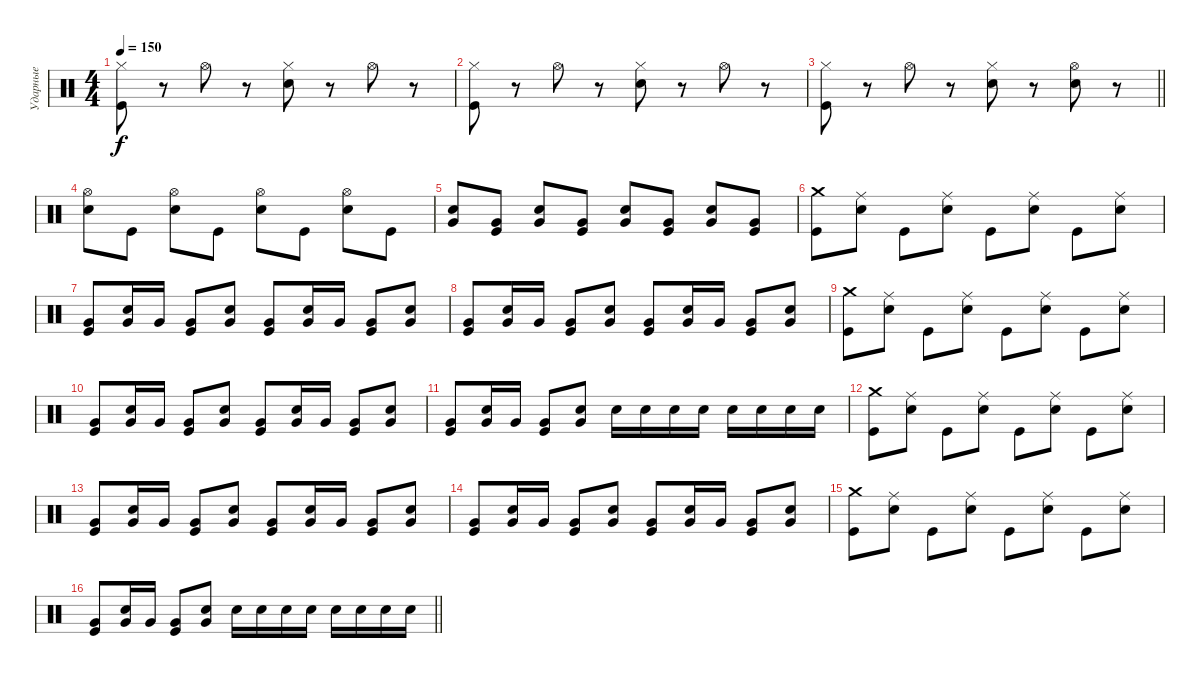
\track ("Ударные" "Ударные") {instrument percussion}
\staff {score}
\articulation defaults
\ts (4 4)
\tempo 150
\clef neutral
\ks c
("Hi-Hat (closed)" "Kick (hit)").8{dy f} r.8 "Hi-Hat (open)".8 r.8 ("Hi-Hat (closed)" "Electric Snare (hit)").8 r.8 "Hi-Hat (open)".8 r.8 |
("Hi-Hat (closed)" "Kick (hit)").8 r.8 "Hi-Hat (open)".8 r.8 ("Hi-Hat (closed)" "Electric Snare (hit)").8 r.8 "Hi-Hat (open)".8 r.8 |
\barLineRight lightlight
("Hi-Hat (closed)" "Kick (hit)").8 r.8 "Hi-Hat (open)".8 r.8 ("Hi-Hat (closed)" "Electric Snare (hit)").8 r.8 ("Hi-Hat (open)" "Electric Snare (hit)").8 r.8 |
\section ("" " ")
("Hi-Hat (open)" "Electric Snare (hit)").8 "Kick (hit)".8 ("Hi-Hat (open)" "Electric Snare (hit)").8 "Kick (hit)".8 ("Hi-Hat (open)" "Electric Snare (hit)").8 "Kick (hit)".8 ("Hi-Hat (open)" "Electric Snare (hit)").8 "Kick (hit)".8 |
("Very Low Tom (hit)" "Electric Snare (hit)").8 ("Very Low Tom (hit)" "Kick (hit)").8 ("Very Low Tom (hit)" "Electric Snare (hit)").8 ("Very Low Tom (hit)" "Kick (hit)").8 ("Very Low Tom (hit)" "Electric Snare (hit)").8 ("Very Low Tom (hit)" "Kick (hit)").8 ("Very Low Tom (hit)" "Electric Snare (hit)").8 ("Very Low Tom (hit)" "Kick (hit)").8 |
("Crash medium (hit)" "Kick (hit)").8 ("Ride (middle)" "Electric Snare (hit)").8 "Kick (hit)".8 ("Ride (middle)" "Electric Snare (hit)").8 "Kick (hit)".8 ("Ride (middle)" "Electric Snare (hit)").8 "Kick (hit)".8 ("Ride (middle)" "Electric Snare (hit)").8 |
("Very Low Tom (hit)" "Kick (hit)").8 ("Very Low Tom (hit)" "Electric Snare (hit)").16 "Very Low Tom (hit)".16 ("Very Low Tom (hit)" "Kick (hit)").8 ("Very Low Tom (hit)" "Electric Snare (hit)").8 ("Very Low Tom (hit)" "Kick (hit)").8 ("Very Low Tom (hit)" "Electric Snare (hit)").16 "Very Low Tom (hit)".16 ("Very Low Tom (hit)" "Kick (hit)").8 ("Very Low Tom (hit)" "Electric Snare (hit)").8 |
("Very Low Tom (hit)" "Kick (hit)").8 ("Very Low Tom (hit)" "Electric Snare (hit)").16 "Very Low Tom (hit)".16 ("Very Low Tom (hit)" "Kick (hit)").8 ("Very Low Tom (hit)" "Electric Snare (hit)").8 ("Very Low Tom (hit)" "Kick (hit)").8 ("Very Low Tom (hit)" "Electric Snare (hit)").16 "Very Low Tom (hit)".16 ("Very Low Tom (hit)" "Kick (hit)").8 ("Very Low Tom (hit)" "Electric Snare (hit)").8 |
("Crash medium (hit)" "Kick (hit)").8 ("Ride (middle)" "Electric Snare (hit)").8 "Kick (hit)".8 ("Ride (middle)" "Electric Snare (hit)").8 "Kick (hit)".8 ("Ride (middle)" "Electric Snare (hit)").8 "Kick (hit)".8 ("Ride (middle)" "Electric Snare (hit)").8 |
("Very Low Tom (hit)" "Kick (hit)").8 ("Very Low Tom (hit)" "Electric Snare (hit)").16 "Very Low Tom (hit)".16 ("Very Low Tom (hit)" "Kick (hit)").8 ("Very Low Tom (hit)" "Electric Snare (hit)").8 ("Very Low Tom (hit)" "Kick (hit)").8 ("Very Low Tom (hit)" "Electric Snare (hit)").16 "Very Low Tom (hit)".16 ("Very Low Tom (hit)" "Kick (hit)").8 ("Very Low Tom (hit)" "Electric Snare (hit)").8 |
("Very Low Tom (hit)" "Kick (hit)").8 ("Very Low Tom (hit)" "Electric Snare (hit)").16 "Very Low Tom (hit)".16 ("Very Low Tom (hit)" "Kick (hit)").8 ("Very Low Tom (hit)" "Electric Snare (hit)").8 "Electric Snare (hit)".16 "Electric Snare (hit)".16 "Electric Snare (hit)".16 "Electric Snare (hit)".16 "Electric Snare (hit)".16 "Electric Snare (hit)".16 "Electric Snare (hit)".16 "Electric Snare (hit)".16 |
("Crash medium (hit)" "Kick (hit)").8 ("Ride (middle)" "Electric Snare (hit)").8 "Kick (hit)".8 ("Ride (middle)" "Electric Snare (hit)").8 "Kick (hit)".8 ("Ride (middle)" "Electric Snare (hit)").8 "Kick (hit)".8 ("Ride (middle)" "Electric Snare (hit)").8 |
("Very Low Tom (hit)" "Kick (hit)").8 ("Very Low Tom (hit)" "Electric Snare (hit)").16 "Very Low Tom (hit)".16 ("Very Low Tom (hit)" "Kick (hit)").8 ("Very Low Tom (hit)" "Electric Snare (hit)").8 ("Very Low Tom (hit)" "Kick (hit)").8 ("Very Low Tom (hit)" "Electric Snare (hit)").16 "Very Low Tom (hit)".16 ("Very Low Tom (hit)" "Kick (hit)").8 ("Very Low Tom (hit)" "Electric Snare (hit)").8 |
("Very Low Tom (hit)" "Kick (hit)").8 ("Very Low Tom (hit)" "Electric Snare (hit)").16 "Very Low Tom (hit)".16 ("Very Low Tom (hit)" "Kick (hit)").8 ("Very Low Tom (hit)" "Electric Snare (hit)").8 ("Very Low Tom (hit)" "Kick (hit)").8 ("Very Low Tom (hit)" "Electric Snare (hit)").16 "Very Low Tom (hit)".16 ("Very Low Tom (hit)" "Kick (hit)").8 ("Very Low Tom (hit)" "Electric Snare (hit)").8 |
("Crash medium (hit)" "Kick (hit)").8 ("Ride (middle)" "Electric Snare (hit)").8 "Kick (hit)".8 ("Ride (middle)" "Electric Snare (hit)").8 "Kick (hit)".8 ("Ride (middle)" "Electric Snare (hit)").8 "Kick (hit)".8 ("Ride (middle)" "Electric Snare (hit)").8 |
\barLineRight lightlight
("Very Low Tom (hit)" "Kick (hit)").8 ("Very Low Tom (hit)" "Electric Snare (hit)").16 "Very Low Tom (hit)".16 ("Very Low Tom (hit)" "Kick (hit)").8 ("Very Low Tom (hit)" "Electric Snare (hit)").8 "Electric Snare (hit)".16 "Electric Snare (hit)".16 "Electric Snare (hit)".16 "Electric Snare (hit)".16 "Electric Snare (hit)".16 "Electric Snare (hit)".16 "Electric Snare (hit)".16 "Electric Snare (hit)".16
